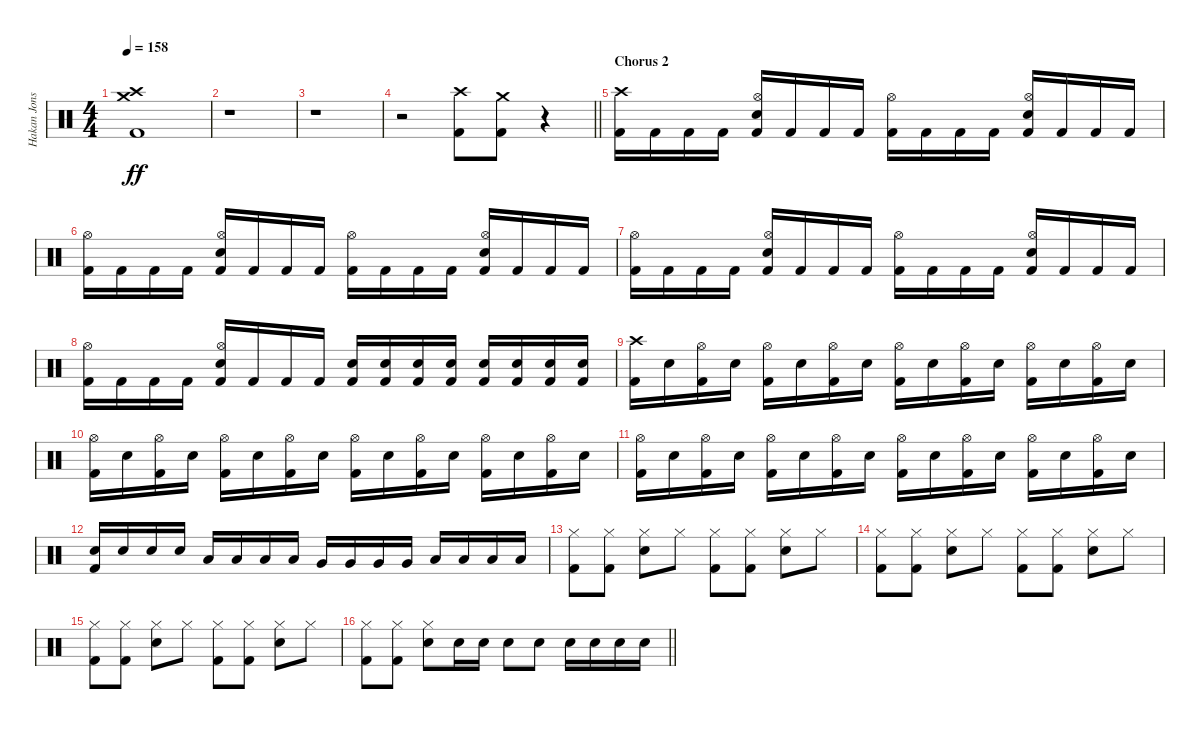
\track ("Hakan Jonsson" "Hakan Jons") {instrument percussion}
\staff {score}
\articulation defaults
\ts (4 4)
\tempo 158
\clef neutral
\ks c
("Crash medium (hit)" "Crash high (hit)" "Kick (hit) 2").1{dy ff} |
r.1 |
r.1 |
\barLineRight lightlight
r.2 ("Crash high (hit)" "Kick (hit) 2").8 ("Crash medium (hit)" "Kick (hit) 2").8 r.4 |
\section ("" "Chorus 2")
("Crash high (hit)" "Kick (hit) 2").16 "Kick (hit) 2".16 "Kick (hit) 2".16 "Kick (hit) 2".16 ("Hi-Hat (open)" "Electric Snare (hit)" "Kick (hit) 2").16 "Kick (hit) 2".16 "Kick (hit) 2".16 "Kick (hit) 2".16 ("Hi-Hat (open)" "Kick (hit) 2").16 "Kick (hit) 2".16 "Kick (hit) 2".16 "Kick (hit) 2".16 ("Hi-Hat (open)" "Electric Snare (hit)" "Kick (hit) 2").16 "Kick (hit) 2".16 "Kick (hit) 2".16 "Kick (hit) 2".16 |
("Hi-Hat (open)" "Kick (hit) 2").16 "Kick (hit) 2".16 "Kick (hit) 2".16 "Kick (hit) 2".16 ("Hi-Hat (open)" "Electric Snare (hit)" "Kick (hit) 2").16 "Kick (hit) 2".16 "Kick (hit) 2".16 "Kick (hit) 2".16 ("Hi-Hat (open)" "Kick (hit) 2").16 "Kick (hit) 2".16 "Kick (hit) 2".16 "Kick (hit) 2".16 ("Hi-Hat (open)" "Electric Snare (hit)" "Kick (hit) 2").16 "Kick (hit) 2".16 "Kick (hit) 2".16 "Kick (hit) 2".16 |
("Hi-Hat (open)" "Kick (hit) 2").16 "Kick (hit) 2".16 "Kick (hit) 2".16 "Kick (hit) 2".16 ("Hi-Hat (open)" "Electric Snare (hit)" "Kick (hit) 2").16 "Kick (hit) 2".16 "Kick (hit) 2".16 "Kick (hit) 2".16 ("Hi-Hat (open)" "Kick (hit) 2").16 "Kick (hit) 2".16 "Kick (hit) 2".16 "Kick (hit) 2".16 ("Hi-Hat (open)" "Electric Snare (hit)" "Kick (hit) 2").16 "Kick (hit) 2".16 "Kick (hit) 2".16 "Kick (hit) 2".16 |
("Hi-Hat (open)" "Kick (hit) 2").16 "Kick (hit) 2".16 "Kick (hit) 2".16 "Kick (hit) 2".16 ("Hi-Hat (open)" "Electric Snare (hit)" "Kick (hit) 2").16 "Kick (hit) 2".16 "Kick (hit) 2".16 "Kick (hit) 2".16 ("Electric Snare (hit)" "Kick (hit) 2").16 ("Electric Snare (hit)" "Kick (hit) 2").16 ("Electric Snare (hit)" "Kick (hit) 2").16 ("Electric Snare (hit)" "Kick (hit) 2").16 ("Electric Snare (hit)" "Kick (hit) 2").16 ("Electric Snare (hit)" "Kick (hit) 2").16 ("Electric Snare (hit)" "Kick (hit) 2").16 ("Electric Snare (hit)" "Kick (hit) 2").16 |
("Crash high (hit)" "Kick (hit) 2").16 "Electric Snare (hit)".16 ("Hi-Hat (open)" "Kick (hit) 2").16 "Electric Snare (hit)".16 ("Hi-Hat (open)" "Kick (hit) 2").16 "Electric Snare (hit)".16 ("Hi-Hat (open)" "Kick (hit) 2").16 "Electric Snare (hit)".16 ("Hi-Hat (open)" "Kick (hit) 2").16 "Electric Snare (hit)".16 ("Hi-Hat (open)" "Kick (hit) 2").16 "Electric Snare (hit)".16 ("Hi-Hat (open)" "Kick (hit) 2").16 "Electric Snare (hit)".16 ("Hi-Hat (open)" "Kick (hit) 2").16 "Electric Snare (hit)".16 |
("Hi-Hat (open)" "Kick (hit) 2").16 "Electric Snare (hit)".16 ("Hi-Hat (open)" "Kick (hit) 2").16 "Electric Snare (hit)".16 ("Hi-Hat (open)" "Kick (hit) 2").16 "Electric Snare (hit)".16 ("Hi-Hat (open)" "Kick (hit) 2").16 "Electric Snare (hit)".16 ("Hi-Hat (open)" "Kick (hit) 2").16 "Electric Snare (hit)".16 ("Hi-Hat (open)" "Kick (hit) 2").16 "Electric Snare (hit)".16 ("Hi-Hat (open)" "Kick (hit) 2").16 "Electric Snare (hit)".16 ("Hi-Hat (open)" "Kick (hit) 2").16 "Electric Snare (hit)".16 |
("Hi-Hat (open)" "Kick (hit) 2").16 "Electric Snare (hit)".16 ("Hi-Hat (open)" "Kick (hit) 2").16 "Electric Snare (hit)".16 ("Hi-Hat (open)" "Kick (hit) 2").16 "Electric Snare (hit)".16 ("Hi-Hat (open)" "Kick (hit) 2").16 "Electric Snare (hit)".16 ("Hi-Hat (open)" "Kick (hit) 2").16 "Electric Snare (hit)".16 ("Hi-Hat (open)" "Kick (hit) 2").16 "Electric Snare (hit)".16 ("Hi-Hat (open)" "Kick (hit) 2").16 "Electric Snare (hit)".16 ("Hi-Hat (open)" "Kick (hit) 2").16 "Electric Snare (hit)".16 |
("Electric Snare (hit)" "Kick (hit) 2").16 "Electric Snare (hit)".16 "Electric Snare (hit)".16 "Electric Snare (hit)".16 "Low Tom (hit)".16 "Low Tom (hit)".16 "Low Tom (hit)".16 "Low Tom (hit)".16 "Very Low Tom (hit)".16 "Very Low Tom (hit)".16 "Very Low Tom (hit)".16 "Very Low Tom (hit)".16 "Low Floor Tom (hit)".16 "Low Floor Tom (hit)".16 "Low Floor Tom (hit)".16 "Low Floor Tom (hit)".16 |
("Hi-Hat (closed)" "Kick (hit) 2").8 ("Hi-Hat (closed)" "Kick (hit) 2").8 ("Hi-Hat (closed)" "Electric Snare (hit)").8 "Hi-Hat (closed)".8 ("Hi-Hat (closed)" "Kick (hit) 2").8 ("Hi-Hat (closed)" "Kick (hit) 2").8 ("Hi-Hat (closed)" "Electric Snare (hit)").8 "Hi-Hat (closed)".8 |
("Hi-Hat (closed)" "Kick (hit) 2").8 ("Hi-Hat (closed)" "Kick (hit) 2").8 ("Hi-Hat (closed)" "Electric Snare (hit)").8 "Hi-Hat (closed)".8 ("Hi-Hat (closed)" "Kick (hit) 2").8 ("Hi-Hat (closed)" "Kick (hit) 2").8 ("Hi-Hat (closed)" "Electric Snare (hit)").8 "Hi-Hat (closed)".8 |
("Hi-Hat (closed)" "Kick (hit) 2").8 ("Hi-Hat (closed)" "Kick (hit) 2").8 ("Hi-Hat (closed)" "Electric Snare (hit)").8 "Hi-Hat (closed)".8 ("Hi-Hat (closed)" "Kick (hit) 2").8 ("Hi-Hat (closed)" "Kick (hit) 2").8 ("Hi-Hat (closed)" "Electric Snare (hit)").8 "Hi-Hat (closed)".8 |
\barLineRight lightlight
("Hi-Hat (closed)" "Kick (hit) 2").8 ("Hi-Hat (closed)" "Kick (hit) 2").8 ("Hi-Hat (closed)" "Electric Snare (hit)").8 "Electric Snare (hit)".16 "Electric Snare (hit)".16 "Electric Snare (hit)".8 "Electric Snare (hit)".8 "Electric Snare (hit)".16 "Electric Snare (hit)".16 "Electric Snare (hit)".16 "Electric Snare (hit)".16
